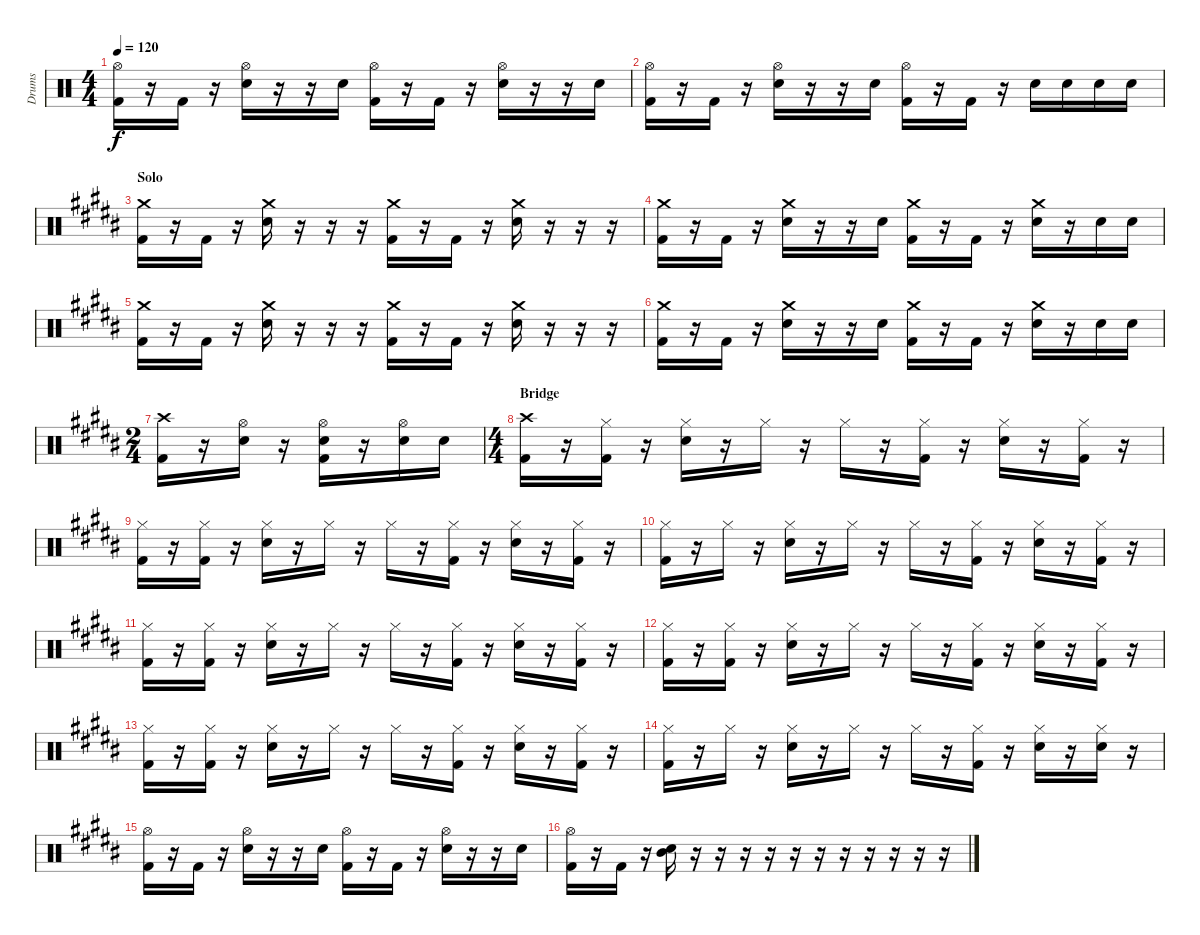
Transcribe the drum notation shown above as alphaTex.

\track ("Drums" "Drums") {instrument percussion}
\staff {score}
\articulation defaults
\ts (4 4)
\tempo 120
\clef neutral
\ks c
("Hi-Hat (open)" "Kick (hit) 2").16{dy f} r.16 "Kick (hit) 2".16 r.16 ("Hi-Hat (open)" "Snare (hit) 2").16 r.16 r.16 "Snare (hit) 2".16 ("Hi-Hat (open)" "Kick (hit) 2").16 r.16 "Kick (hit) 2".16 r.16 ("Hi-Hat (open)" "Snare (hit) 2").16 r.16 r.16 "Snare (hit) 2".16 |
("Hi-Hat (open)" "Kick (hit) 2").16 r.16 "Kick (hit) 2".16 r.16 ("Hi-Hat (open)" "Snare (hit) 2").16 r.16 r.16 "Snare (hit) 2".16 ("Hi-Hat (open)" "Kick (hit) 2").16 r.16 "Kick (hit) 2".16 r.16 "Snare (hit) 2".16 "Snare (hit) 2".16 "Snare (hit) 2".16 "Snare (hit) 2".16 |
\section ("" "Solo")
\ks b
("Crash medium (hit)" "Kick (hit) 2").16 r.16 "Kick (hit) 2".16 r.16 ("Crash medium (hit)" "Snare (hit) 2").16 r.16 r.16 r.16 ("Crash medium (hit)" "Kick (hit) 2").16 r.16 "Kick (hit) 2".16 r.16 ("Crash medium (hit)" "Snare (hit) 2").16 r.16 r.16 r.16 |
("Crash medium (hit)" "Kick (hit) 2").16 r.16 "Kick (hit) 2".16 r.16 ("Crash medium (hit)" "Snare (hit) 2").16 r.16 r.16 "Snare (hit) 2".16 ("Crash medium (hit)" "Kick (hit) 2").16 r.16 "Kick (hit) 2".16 r.16 ("Crash medium (hit)" "Snare (hit) 2").16 r.16 "Snare (hit) 2".16 "Snare (hit) 2".16 |
("Crash medium (hit)" "Kick (hit) 2").16 r.16 "Kick (hit) 2".16 r.16 ("Crash medium (hit)" "Snare (hit) 2").16 r.16 r.16 r.16 ("Crash medium (hit)" "Kick (hit) 2").16 r.16 "Kick (hit) 2".16 r.16 ("Crash medium (hit)" "Snare (hit) 2").16 r.16 r.16 r.16 |
("Crash medium (hit)" "Kick (hit) 2").16 r.16 "Kick (hit) 2".16 r.16 ("Crash medium (hit)" "Snare (hit) 2").16 r.16 r.16 "Snare (hit) 2".16 ("Crash medium (hit)" "Kick (hit) 2").16 r.16 "Kick (hit) 2".16 r.16 ("Crash medium (hit)" "Snare (hit) 2").16 r.16 "Snare (hit) 2".16 "Snare (hit) 2".16 |
\ts (2 4)
("Crash high (hit)" "Kick (hit) 2").16 r.16 ("Hi-Hat (open)" "Snare (hit) 2").16 r.16 ("Hi-Hat (open)" "Snare (hit) 2" "Kick (hit) 2").16 r.16 ("Hi-Hat (open)" "Snare (hit) 2").16 "Snare (hit) 2".16 |
\ts (4 4)
\section ("" "Bridge")
("Crash high (hit)" "Kick (hit) 2").16 r.16 ("Hi-Hat (closed)" "Kick (hit) 2").16 r.16 ("Hi-Hat (closed)" "Snare (hit) 2").16 r.16 "Hi-Hat (closed)".16 r.16 "Hi-Hat (closed)".16 r.16 ("Hi-Hat (closed)" "Kick (hit) 2").16 r.16 ("Hi-Hat (closed)" "Snare (hit) 2").16 r.16 ("Hi-Hat (closed)" "Kick (hit) 2").16 r.16 |
("Hi-Hat (closed)" "Kick (hit) 2").16 r.16 ("Hi-Hat (closed)" "Kick (hit) 2").16 r.16 ("Hi-Hat (closed)" "Snare (hit) 2").16 r.16 "Hi-Hat (closed)".16 r.16 "Hi-Hat (closed)".16 r.16 ("Hi-Hat (closed)" "Kick (hit) 2").16 r.16 ("Hi-Hat (closed)" "Snare (hit) 2").16 r.16 ("Hi-Hat (closed)" "Kick (hit) 2").16 r.16 |
("Hi-Hat (closed)" "Kick (hit) 2").16 r.16 "Hi-Hat (closed)".16 r.16 ("Hi-Hat (closed)" "Snare (hit) 2").16 r.16 "Hi-Hat (closed)".16 r.16 "Hi-Hat (closed)".16 r.16 ("Hi-Hat (closed)" "Kick (hit) 2").16 r.16 ("Hi-Hat (closed)" "Snare (hit) 2").16 r.16 ("Hi-Hat (closed)" "Kick (hit) 2").16 r.16 |
("Hi-Hat (closed)" "Kick (hit) 2").16 r.16 ("Hi-Hat (closed)" "Kick (hit) 2").16 r.16 ("Hi-Hat (closed)" "Snare (hit) 2").16 r.16 "Hi-Hat (closed)".16 r.16 "Hi-Hat (closed)".16 r.16 ("Hi-Hat (closed)" "Kick (hit) 2").16 r.16 ("Hi-Hat (closed)" "Snare (hit) 2").16 r.16 ("Hi-Hat (closed)" "Kick (hit) 2").16 r.16 |
("Hi-Hat (closed)" "Kick (hit) 2").16 r.16 ("Hi-Hat (closed)" "Kick (hit) 2").16 r.16 ("Hi-Hat (closed)" "Snare (hit) 2").16 r.16 "Hi-Hat (closed)".16 r.16 "Hi-Hat (closed)".16 r.16 ("Hi-Hat (closed)" "Kick (hit) 2").16 r.16 ("Hi-Hat (closed)" "Snare (hit) 2").16 r.16 ("Hi-Hat (closed)" "Kick (hit) 2").16 r.16 |
("Hi-Hat (closed)" "Kick (hit) 2").16 r.16 ("Hi-Hat (closed)" "Kick (hit) 2").16 r.16 ("Hi-Hat (closed)" "Snare (hit) 2").16 r.16 "Hi-Hat (closed)".16 r.16 "Hi-Hat (closed)".16 r.16 ("Hi-Hat (closed)" "Kick (hit) 2").16 r.16 ("Hi-Hat (closed)" "Snare (hit) 2").16 r.16 ("Hi-Hat (closed)" "Kick (hit) 2").16 r.16 |
("Hi-Hat (closed)" "Kick (hit) 2").16 r.16 "Hi-Hat (closed)".16 r.16 ("Hi-Hat (closed)" "Snare (hit) 2").16 r.16 "Hi-Hat (closed)".16 r.16 "Hi-Hat (closed)".16 r.16 ("Hi-Hat (closed)" "Kick (hit) 2").16 r.16 ("Hi-Hat (closed)" "Snare (hit) 2").16 r.16 ("Hi-Hat (closed)" "Snare (hit) 2").16 r.16 |
("Hi-Hat (open)" "Kick (hit) 2").16 r.16 "Kick (hit) 2".16 r.16 ("Hi-Hat (open)" "Snare (hit) 2").16 r.16 r.16 "Snare (hit) 2".16 ("Hi-Hat (open)" "Kick (hit) 2").16 r.16 "Kick (hit) 2".16 r.16 ("Hi-Hat (open)" "Snare (hit) 2").16 r.16 r.16 "Snare (hit) 2".16 |
("Hi-Hat (open)" "Kick (hit) 2").16 r.16 "Kick (hit) 2".16 r.16 ("Mid Tom (hit)" "Snare (hit) 2").16 r.16 r.16 r.16 r.16 r.16 r.16 r.16 r.16 r.16 r.16 r.16
